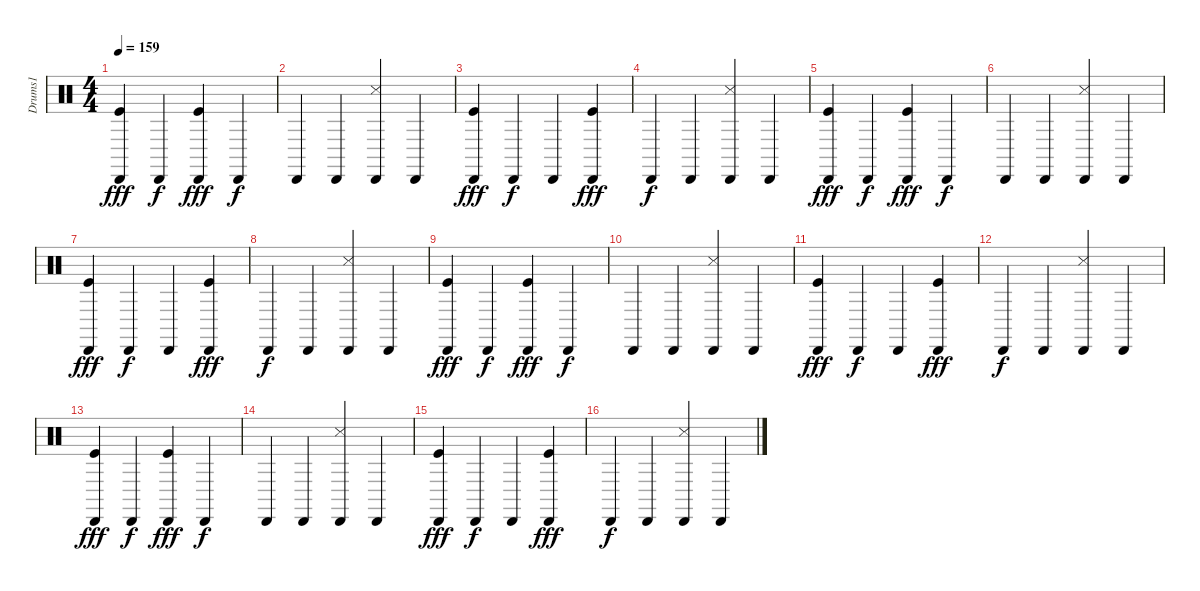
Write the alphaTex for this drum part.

\track ("Drums1" "Drums1") {instrument percussion}
\staff {score}
\articulation defaults
\ts (4 4)
\tempo 159
\clef neutral
\ks c
("Cabasa (hit)" "Kick (hit)").4{dy fff} "Cabasa (hit)".4{dy f} ("Cabasa (hit)" "Kick (hit)").4{dy fff} "Cabasa (hit)".4{dy f} |
"Cabasa (hit)".4 "Cabasa (hit)".4 ("Cabasa (hit)" "Snare (side stick) 3").4 "Cabasa (hit)".4 |
("Cabasa (hit)" "Kick (hit)").4{dy fff} "Cabasa (hit)".4{dy f} "Cabasa (hit)".4 ("Cabasa (hit)" "Kick (hit)").4{dy fff} |
"Cabasa (hit)".4{dy f} "Cabasa (hit)".4 ("Cabasa (hit)" "Snare (side stick) 3").4 "Cabasa (hit)".4 |
("Cabasa (hit)" "Kick (hit)").4{dy fff} "Cabasa (hit)".4{dy f} ("Cabasa (hit)" "Kick (hit)").4{dy fff} "Cabasa (hit)".4{dy f} |
"Cabasa (hit)".4 "Cabasa (hit)".4 ("Cabasa (hit)" "Snare (side stick) 3").4 "Cabasa (hit)".4 |
("Cabasa (hit)" "Kick (hit)").4{dy fff} "Cabasa (hit)".4{dy f} "Cabasa (hit)".4 ("Cabasa (hit)" "Kick (hit)").4{dy fff} |
"Cabasa (hit)".4{dy f} "Cabasa (hit)".4 ("Cabasa (hit)" "Snare (side stick) 3").4 "Cabasa (hit)".4 |
("Cabasa (hit)" "Kick (hit)").4{dy fff} "Cabasa (hit)".4{dy f} ("Cabasa (hit)" "Kick (hit)").4{dy fff} "Cabasa (hit)".4{dy f} |
"Cabasa (hit)".4 "Cabasa (hit)".4 ("Cabasa (hit)" "Snare (side stick) 3").4 "Cabasa (hit)".4 |
("Cabasa (hit)" "Kick (hit)").4{dy fff} "Cabasa (hit)".4{dy f} "Cabasa (hit)".4 ("Cabasa (hit)" "Kick (hit)").4{dy fff} |
"Cabasa (hit)".4{dy f} "Cabasa (hit)".4 ("Cabasa (hit)" "Snare (side stick) 3").4 "Cabasa (hit)".4 |
("Cabasa (hit)" "Kick (hit)").4{dy fff} "Cabasa (hit)".4{dy f} ("Cabasa (hit)" "Kick (hit)").4{dy fff} "Cabasa (hit)".4{dy f} |
"Cabasa (hit)".4 "Cabasa (hit)".4 ("Cabasa (hit)" "Snare (side stick) 3").4 "Cabasa (hit)".4 |
("Cabasa (hit)" "Kick (hit)").4{dy fff} "Cabasa (hit)".4{dy f} "Cabasa (hit)".4 ("Cabasa (hit)" "Kick (hit)").4{dy fff} |
"Cabasa (hit)".4{dy f} "Cabasa (hit)".4 ("Cabasa (hit)" "Snare (side stick) 3").4 "Cabasa (hit)".4
